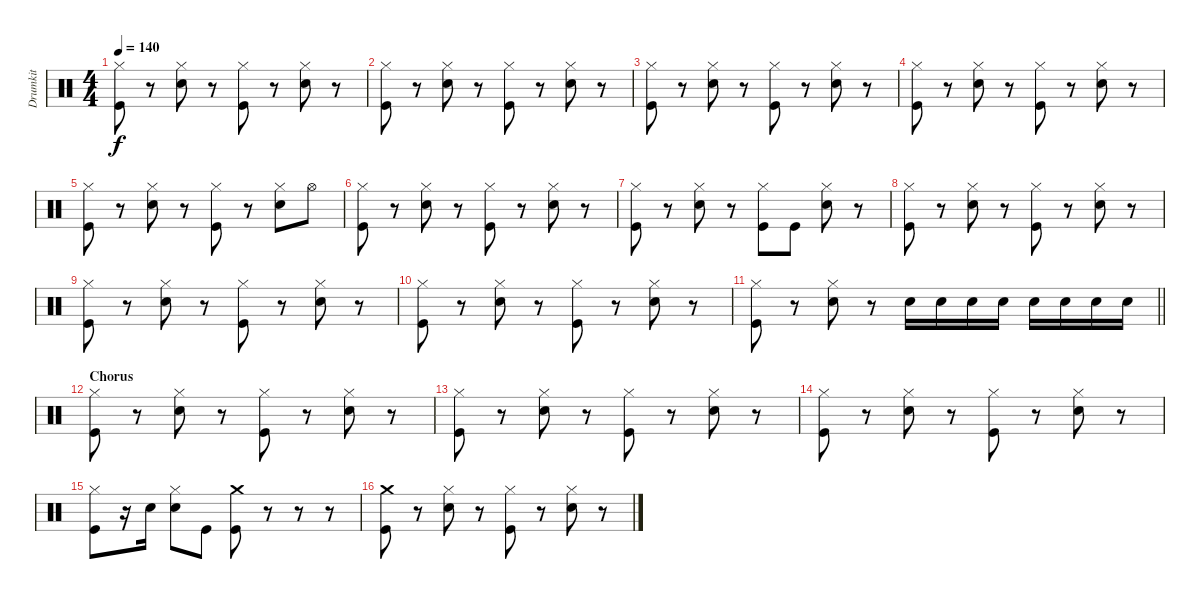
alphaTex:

\track ("Drumkit" "Drumkit") {instrument percussion}
\staff {score}
\articulation defaults
\ts (4 4)
\tempo 140
\clef neutral
\ks c
("Hi-Hat (closed)" "Kick (hit)").8{dy f} r.8 ("Hi-Hat (closed)" "Snare (hit) 2").8 r.8 ("Hi-Hat (closed)" "Kick (hit)").8 r.8 ("Hi-Hat (closed)" "Snare (hit) 2").8 r.8 |
("Hi-Hat (closed)" "Kick (hit)").8 r.8 ("Hi-Hat (closed)" "Snare (hit) 2").8 r.8 ("Hi-Hat (closed)" "Kick (hit)").8 r.8 ("Hi-Hat (closed)" "Snare (hit) 2").8 r.8 |
("Hi-Hat (closed)" "Kick (hit)").8 r.8 ("Hi-Hat (closed)" "Snare (hit) 2").8 r.8 ("Hi-Hat (closed)" "Kick (hit)").8 r.8 ("Hi-Hat (closed)" "Snare (hit) 2").8 r.8 |
("Hi-Hat (closed)" "Kick (hit)").8 r.8 ("Hi-Hat (closed)" "Snare (hit) 2").8 r.8 ("Hi-Hat (closed)" "Kick (hit)").8 r.8 ("Hi-Hat (closed)" "Snare (hit) 2").8 r.8 |
("Hi-Hat (closed)" "Kick (hit)").8 r.8 ("Hi-Hat (closed)" "Snare (hit) 2").8 r.8 ("Hi-Hat (closed)" "Kick (hit)").8 r.8 ("Hi-Hat (closed)" "Snare (hit) 2").8 "Hi-Hat (open)".8 |
("Hi-Hat (closed)" "Kick (hit)").8 r.8 ("Hi-Hat (closed)" "Snare (hit) 2").8 r.8 ("Hi-Hat (closed)" "Kick (hit)").8 r.8 ("Hi-Hat (closed)" "Snare (hit) 2").8 r.8 |
("Hi-Hat (closed)" "Kick (hit)").8 r.8 ("Hi-Hat (closed)" "Snare (hit) 2").8 r.8 ("Hi-Hat (closed)" "Kick (hit)").8 "Kick (hit)".8 ("Hi-Hat (closed)" "Snare (hit) 2").8 r.8 |
("Hi-Hat (closed)" "Kick (hit)").8 r.8 ("Hi-Hat (closed)" "Snare (hit) 2").8 r.8 ("Hi-Hat (closed)" "Kick (hit)").8 r.8 ("Hi-Hat (closed)" "Snare (hit) 2").8 r.8 |
("Hi-Hat (closed)" "Kick (hit)").8 r.8 ("Hi-Hat (closed)" "Snare (hit) 2").8 r.8 ("Hi-Hat (closed)" "Kick (hit)").8 r.8 ("Hi-Hat (closed)" "Snare (hit) 2").8 r.8 |
("Hi-Hat (closed)" "Kick (hit)").8 r.8 ("Hi-Hat (closed)" "Snare (hit) 2").8 r.8 ("Hi-Hat (closed)" "Kick (hit)").8 r.8 ("Hi-Hat (closed)" "Snare (hit) 2").8 r.8 |
\barLineRight lightlight
("Hi-Hat (closed)" "Kick (hit)").8 r.8 ("Hi-Hat (closed)" "Snare (hit) 2").8 r.8 "Snare (hit) 2".16 "Snare (hit) 2".16 "Snare (hit) 2".16 "Snare (hit) 2".16 "Snare (hit) 2".16 "Snare (hit) 2".16 "Snare (hit) 2".16 "Snare (hit) 2".16 |
\section ("" "Chorus")
("Hi-Hat (closed)" "Kick (hit)").8 r.8 ("Hi-Hat (closed)" "Snare (hit) 2").8 r.8 ("Hi-Hat (closed)" "Kick (hit)").8 r.8 ("Hi-Hat (closed)" "Snare (hit) 2").8 r.8 |
("Hi-Hat (closed)" "Kick (hit)").8 r.8 ("Hi-Hat (closed)" "Snare (hit) 2").8 r.8 ("Hi-Hat (closed)" "Kick (hit)").8 r.8 ("Hi-Hat (closed)" "Snare (hit) 2").8 r.8 |
("Hi-Hat (closed)" "Kick (hit)").8 r.8 ("Hi-Hat (closed)" "Snare (hit) 2").8 r.8 ("Hi-Hat (closed)" "Kick (hit)").8 r.8 ("Hi-Hat (closed)" "Snare (hit) 2").8 r.8 |
("Hi-Hat (closed)" "Kick (hit)").8 r.16 "Snare (hit) 2".16 ("Hi-Hat (closed)" "Snare (hit) 2").8 "Kick (hit)".8 ("Crash medium (hit)" "Kick (hit)").8 r.8 r.8 r.8 |
("Crash medium (hit)" "Kick (hit)").8 r.8 ("Hi-Hat (closed)" "Snare (hit) 2").8 r.8 ("Hi-Hat (closed)" "Kick (hit)").8 r.8 ("Hi-Hat (closed)" "Snare (hit) 2").8 r.8
